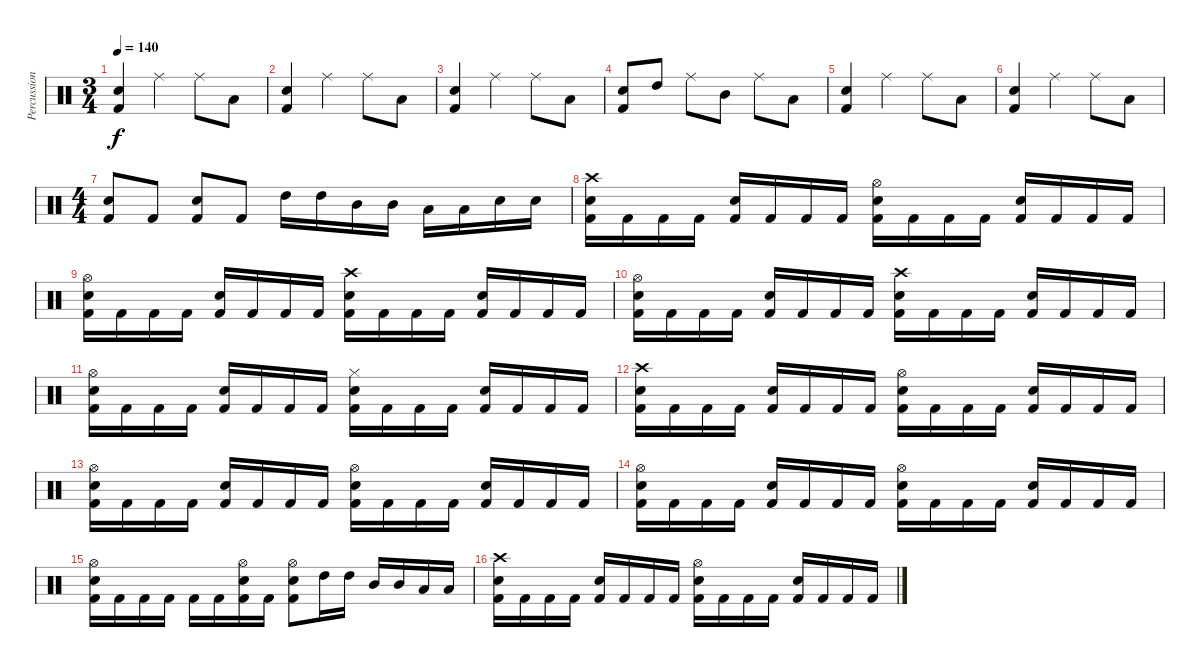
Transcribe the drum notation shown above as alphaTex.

\track ("Percussions" "Percussion") {instrument percussion}
\staff {score}
\articulation defaults
\ts (3 4)
\tempo 140
\clef neutral
\ks c
("Snare (hit) 2" "Kick (hit) 2").4{dy f} "Ride (middle)".4 "Ride (middle)".8 "Low Tom (hit)".8 |
("Snare (hit) 2" "Kick (hit) 2").4 "Ride (middle)".4 "Ride (middle)".8 "Low Tom (hit)".8 |
("Snare (hit) 2" "Kick (hit) 2").4 "Ride (middle)".4 "Ride (middle)".8 "Low Tom (hit)".8 |
("Snare (hit) 2" "Kick (hit) 2").8 "High Tom (hit)".8 "Ride (middle)".8 "Mid Tom (hit)".8 "Ride (middle)".8 "Low Tom (hit)".8 |
("Snare (hit) 2" "Kick (hit) 2").4 "Ride (middle)".4 "Ride (middle)".8 "Low Tom (hit)".8 |
("Snare (hit) 2" "Kick (hit) 2").4 "Ride (middle)".4 "Ride (middle)".8 "Low Tom (hit)".8 |
\ts (4 4)
("Snare (hit) 2" "Kick (hit) 2").8 "Kick (hit) 2".8 ("Snare (hit) 2" "Kick (hit) 2").8 "Kick (hit) 2".8 "High Tom (hit)".16 "High Tom (hit)".16 "Mid Tom (hit)".16 "Mid Tom (hit)".16 "Low Tom (hit)".16 "Low Tom (hit)".16 "Snare (hit) 2".16 "Snare (hit) 2".16 |
("Crash high (hit)" "Snare (hit) 2" "Kick (hit) 2").16 "Kick (hit) 2".16 "Kick (hit) 2".16 "Kick (hit) 2".16 ("Snare (hit) 2" "Kick (hit) 2").16 "Kick (hit) 2".16 "Kick (hit) 2".16 "Kick (hit) 2".16 ("Hi-Hat (open)" "Snare (hit) 2" "Kick (hit) 2").16 "Kick (hit) 2".16 "Kick (hit) 2".16 "Kick (hit) 2".16 ("Snare (hit) 2" "Kick (hit) 2").16 "Kick (hit) 2".16 "Kick (hit) 2".16 "Kick (hit) 2".16 |
("Hi-Hat (open)" "Snare (hit) 2" "Kick (hit) 2").16 "Kick (hit) 2".16 "Kick (hit) 2".16 "Kick (hit) 2".16 ("Snare (hit) 2" "Kick (hit) 2").16 "Kick (hit) 2".16 "Kick (hit) 2".16 "Kick (hit) 2".16 ("Crash high (hit)" "Snare (hit) 2" "Kick (hit) 2").16 "Kick (hit) 2".16 "Kick (hit) 2".16 "Kick (hit) 2".16 ("Snare (hit) 2" "Kick (hit) 2").16 "Kick (hit) 2".16 "Kick (hit) 2".16 "Kick (hit) 2".16 |
("Hi-Hat (open)" "Snare (hit) 2" "Kick (hit) 2").16 "Kick (hit) 2".16 "Kick (hit) 2".16 "Kick (hit) 2".16 ("Snare (hit) 2" "Kick (hit) 2").16 "Kick (hit) 2".16 "Kick (hit) 2".16 "Kick (hit) 2".16 ("Crash high (hit)" "Snare (hit) 2" "Kick (hit) 2").16 "Kick (hit) 2".16 "Kick (hit) 2".16 "Kick (hit) 2".16 ("Snare (hit) 2" "Kick (hit) 2").16 "Kick (hit) 2".16 "Kick (hit) 2".16 "Kick (hit) 2".16 |
("Hi-Hat (open)" "Snare (hit) 2" "Kick (hit) 2").16 "Kick (hit) 2".16 "Kick (hit) 2".16 "Kick (hit) 2".16 ("Snare (hit) 2" "Kick (hit) 2").16 "Kick (hit) 2".16 "Kick (hit) 2".16 "Kick (hit) 2".16 ("Hi-Hat (closed)" "Snare (hit) 2" "Kick (hit) 2").16 "Kick (hit) 2".16 "Kick (hit) 2".16 "Kick (hit) 2".16 ("Snare (hit) 2" "Kick (hit) 2").16 "Kick (hit) 2".16 "Kick (hit) 2".16 "Kick (hit) 2".16 |
("Crash high (hit)" "Snare (hit) 2" "Kick (hit) 2").16 "Kick (hit) 2".16 "Kick (hit) 2".16 "Kick (hit) 2".16 ("Snare (hit) 2" "Kick (hit) 2").16 "Kick (hit) 2".16 "Kick (hit) 2".16 "Kick (hit) 2".16 ("Hi-Hat (open)" "Snare (hit) 2" "Kick (hit) 2").16 "Kick (hit) 2".16 "Kick (hit) 2".16 "Kick (hit) 2".16 ("Snare (hit) 2" "Kick (hit) 2").16 "Kick (hit) 2".16 "Kick (hit) 2".16 "Kick (hit) 2".16 |
("Hi-Hat (open)" "Snare (hit) 2" "Kick (hit) 2").16 "Kick (hit) 2".16 "Kick (hit) 2".16 "Kick (hit) 2".16 ("Snare (hit) 2" "Kick (hit) 2").16 "Kick (hit) 2".16 "Kick (hit) 2".16 "Kick (hit) 2".16 ("Hi-Hat (open)" "Snare (hit) 2" "Kick (hit) 2").16 "Kick (hit) 2".16 "Kick (hit) 2".16 "Kick (hit) 2".16 ("Snare (hit) 2" "Kick (hit) 2").16 "Kick (hit) 2".16 "Kick (hit) 2".16 "Kick (hit) 2".16 |
("Hi-Hat (open)" "Snare (hit) 2" "Kick (hit) 2").16 "Kick (hit) 2".16 "Kick (hit) 2".16 "Kick (hit) 2".16 ("Snare (hit) 2" "Kick (hit) 2").16 "Kick (hit) 2".16 "Kick (hit) 2".16 "Kick (hit) 2".16 ("Hi-Hat (open)" "Snare (hit) 2" "Kick (hit) 2").16 "Kick (hit) 2".16 "Kick (hit) 2".16 "Kick (hit) 2".16 ("Snare (hit) 2" "Kick (hit) 2").16 "Kick (hit) 2".16 "Kick (hit) 2".16 "Kick (hit) 2".16 |
("Hi-Hat (open)" "Snare (hit) 2" "Kick (hit) 2").16 "Kick (hit) 2".16 "Kick (hit) 2".16 "Kick (hit) 2".16 "Kick (hit) 2".16 "Kick (hit) 2".16 ("Hi-Hat (open)" "Snare (hit) 2" "Kick (hit) 2").16 "Kick (hit) 2".16 ("Hi-Hat (open)" "Snare (hit) 2" "Kick (hit) 2").8 "High Tom (hit)".16 "High Tom (hit)".16 "Mid Tom (hit)".16 "Mid Tom (hit)".16 "Low Tom (hit)".16 "Low Tom (hit)".16 |
("Crash high (hit)" "Snare (hit) 2" "Kick (hit) 2").16 "Kick (hit) 2".16 "Kick (hit) 2".16 "Kick (hit) 2".16 ("Snare (hit) 2" "Kick (hit) 2").16 "Kick (hit) 2".16 "Kick (hit) 2".16 "Kick (hit) 2".16 ("Hi-Hat (open)" "Snare (hit) 2" "Kick (hit) 2").16 "Kick (hit) 2".16 "Kick (hit) 2".16 "Kick (hit) 2".16 ("Snare (hit) 2" "Kick (hit) 2").16 "Kick (hit) 2".16 "Kick (hit) 2".16 "Kick (hit) 2".16
